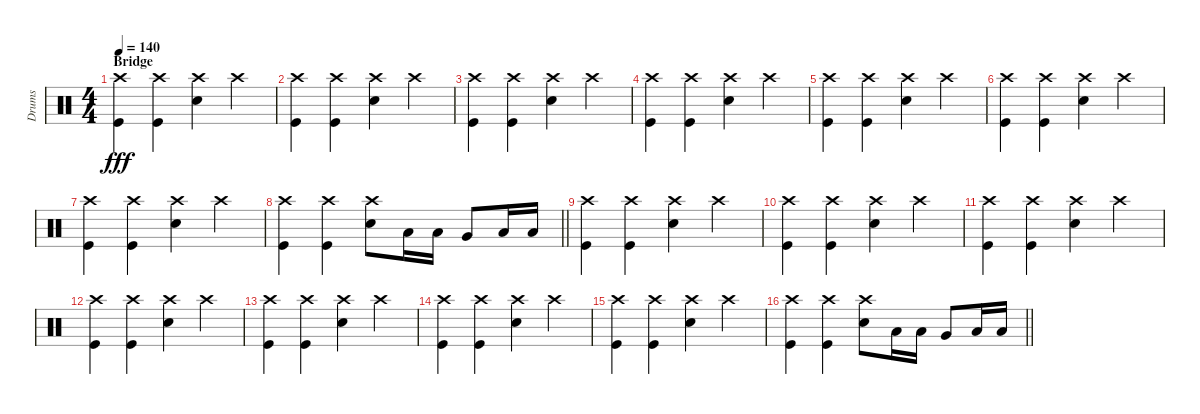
\track ("Drums" "Drums") {instrument percussion}
\staff {score}
\articulation defaults
\ts (4 4)
\section ("" "Bridge")
\tempo 140
\clef neutral
\ks c
("Kick (hit)" "Crash high (hit)").4{dy fff} ("Kick (hit)" "Crash high (hit)").4 ("Snare (hit) 2" "Crash high (hit)").4 "Crash high (hit)".4 |
("Kick (hit)" "Crash high (hit)").4 ("Kick (hit)" "Crash high (hit)").4 ("Snare (hit) 2" "Crash high (hit)").4 "Crash high (hit)".4 |
("Kick (hit)" "Crash high (hit)").4 ("Kick (hit)" "Crash high (hit)").4 ("Snare (hit) 2" "Crash high (hit)").4 "Crash high (hit)".4 |
("Kick (hit)" "Crash high (hit)").4 ("Kick (hit)" "Crash high (hit)").4 ("Snare (hit) 2" "Crash high (hit)").4 "Crash high (hit)".4 |
("Kick (hit)" "Crash high (hit)").4 ("Kick (hit)" "Crash high (hit)").4 ("Snare (hit) 2" "Crash high (hit)").4 "Crash high (hit)".4 |
("Kick (hit)" "Crash high (hit)").4 ("Kick (hit)" "Crash high (hit)").4 ("Snare (hit) 2" "Crash high (hit)").4 "Crash high (hit)".4 |
("Kick (hit)" "Crash high (hit)").4 ("Kick (hit)" "Crash high (hit)").4 ("Snare (hit) 2" "Crash high (hit)").4 "Crash high (hit)".4 |
\barLineRight lightlight
("Kick (hit)" "Crash high (hit)").4 ("Kick (hit)" "Crash high (hit)").4 ("Snare (hit) 2" "Crash high (hit)").8 "Low Tom (hit)".16 "Low Tom (hit)".16 "Very Low Tom (hit)".8 "Low Floor Tom (hit)".16 "Low Floor Tom (hit)".16 |
("Kick (hit)" "Crash high (hit)").4 ("Kick (hit)" "Crash high (hit)").4 ("Snare (hit) 2" "Crash high (hit)").4 "Crash high (hit)".4 |
("Kick (hit)" "Crash high (hit)").4 ("Kick (hit)" "Crash high (hit)").4 ("Snare (hit) 2" "Crash high (hit)").4 "Crash high (hit)".4 |
("Kick (hit)" "Crash high (hit)").4 ("Kick (hit)" "Crash high (hit)").4 ("Snare (hit) 2" "Crash high (hit)").4 "Crash high (hit)".4 |
("Kick (hit)" "Crash high (hit)").4 ("Kick (hit)" "Crash high (hit)").4 ("Snare (hit) 2" "Crash high (hit)").4 "Crash high (hit)".4 |
("Kick (hit)" "Crash high (hit)").4 ("Kick (hit)" "Crash high (hit)").4 ("Snare (hit) 2" "Crash high (hit)").4 "Crash high (hit)".4 |
("Kick (hit)" "Crash high (hit)").4 ("Kick (hit)" "Crash high (hit)").4 ("Snare (hit) 2" "Crash high (hit)").4 "Crash high (hit)".4 |
("Kick (hit)" "Crash high (hit)").4 ("Kick (hit)" "Crash high (hit)").4 ("Snare (hit) 2" "Crash high (hit)").4 "Crash high (hit)".4 |
\barLineRight lightlight
("Kick (hit)" "Crash high (hit)").4 ("Kick (hit)" "Crash high (hit)").4 ("Snare (hit) 2" "Crash high (hit)").8 "Low Tom (hit)".16 "Low Tom (hit)".16 "Very Low Tom (hit)".8 "Low Floor Tom (hit)".16 "Low Floor Tom (hit)".16
